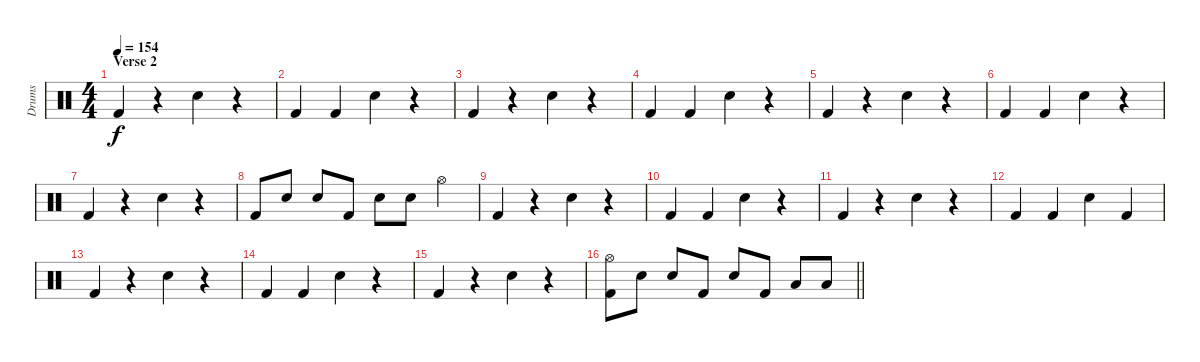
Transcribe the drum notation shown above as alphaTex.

\track ("Drums" "Drums") {instrument percussion}
\staff {score}
\articulation defaults
\ts (4 4)
\section ("" "Verse 2")
\tempo 154
\clef neutral
\ks c "Kick (hit) 2".4{dy f}
r.4 "Snare (hit) 2".4 r.4 |
"Kick (hit) 2".4 "Kick (hit) 2".4 "Snare (hit) 2".4 r.4 |
"Kick (hit) 2".4 r.4 "Snare (hit) 2".4 r.4 |
"Kick (hit) 2".4 "Kick (hit) 2".4 "Snare (hit) 2".4 r.4 |
"Kick (hit) 2".4 r.4 "Snare (hit) 2".4 r.4 |
"Kick (hit) 2".4 "Kick (hit) 2".4 "Snare (hit) 2".4 r.4 |
"Kick (hit) 2".4 r.4 "Snare (hit) 2".4 r.4 |
"Kick (hit) 2".8 "Snare (hit) 2".8 "Snare (hit) 2".8 "Kick (hit) 2".8 "Snare (hit) 2".8 "Snare (hit) 2".8 "Hi-Hat (open)".4 |
"Kick (hit) 2".4 r.4 "Snare (hit) 2".4 r.4 |
"Kick (hit) 2".4 "Kick (hit) 2".4 "Snare (hit) 2".4 r.4 |
"Kick (hit) 2".4 r.4 "Snare (hit) 2".4 r.4 |
"Kick (hit) 2".4 "Kick (hit) 2".4 "Snare (hit) 2".4 "Kick (hit) 2".4 |
"Kick (hit) 2".4 r.4 "Snare (hit) 2".4 r.4 |
"Kick (hit) 2".4 "Kick (hit) 2".4 "Snare (hit) 2".4 r.4 |
"Kick (hit) 2".4 r.4 "Snare (hit) 2".4 r.4 |
\barLineRight lightlight
("Hi-Hat (open)" "Kick (hit) 2").8 "Snare (hit) 2".8 "Snare (hit) 2".8 "Kick (hit) 2".8 "Snare (hit) 2".8 "Kick (hit) 2".8 "Low Tom (hit)".8 "Low Tom (hit)".8
